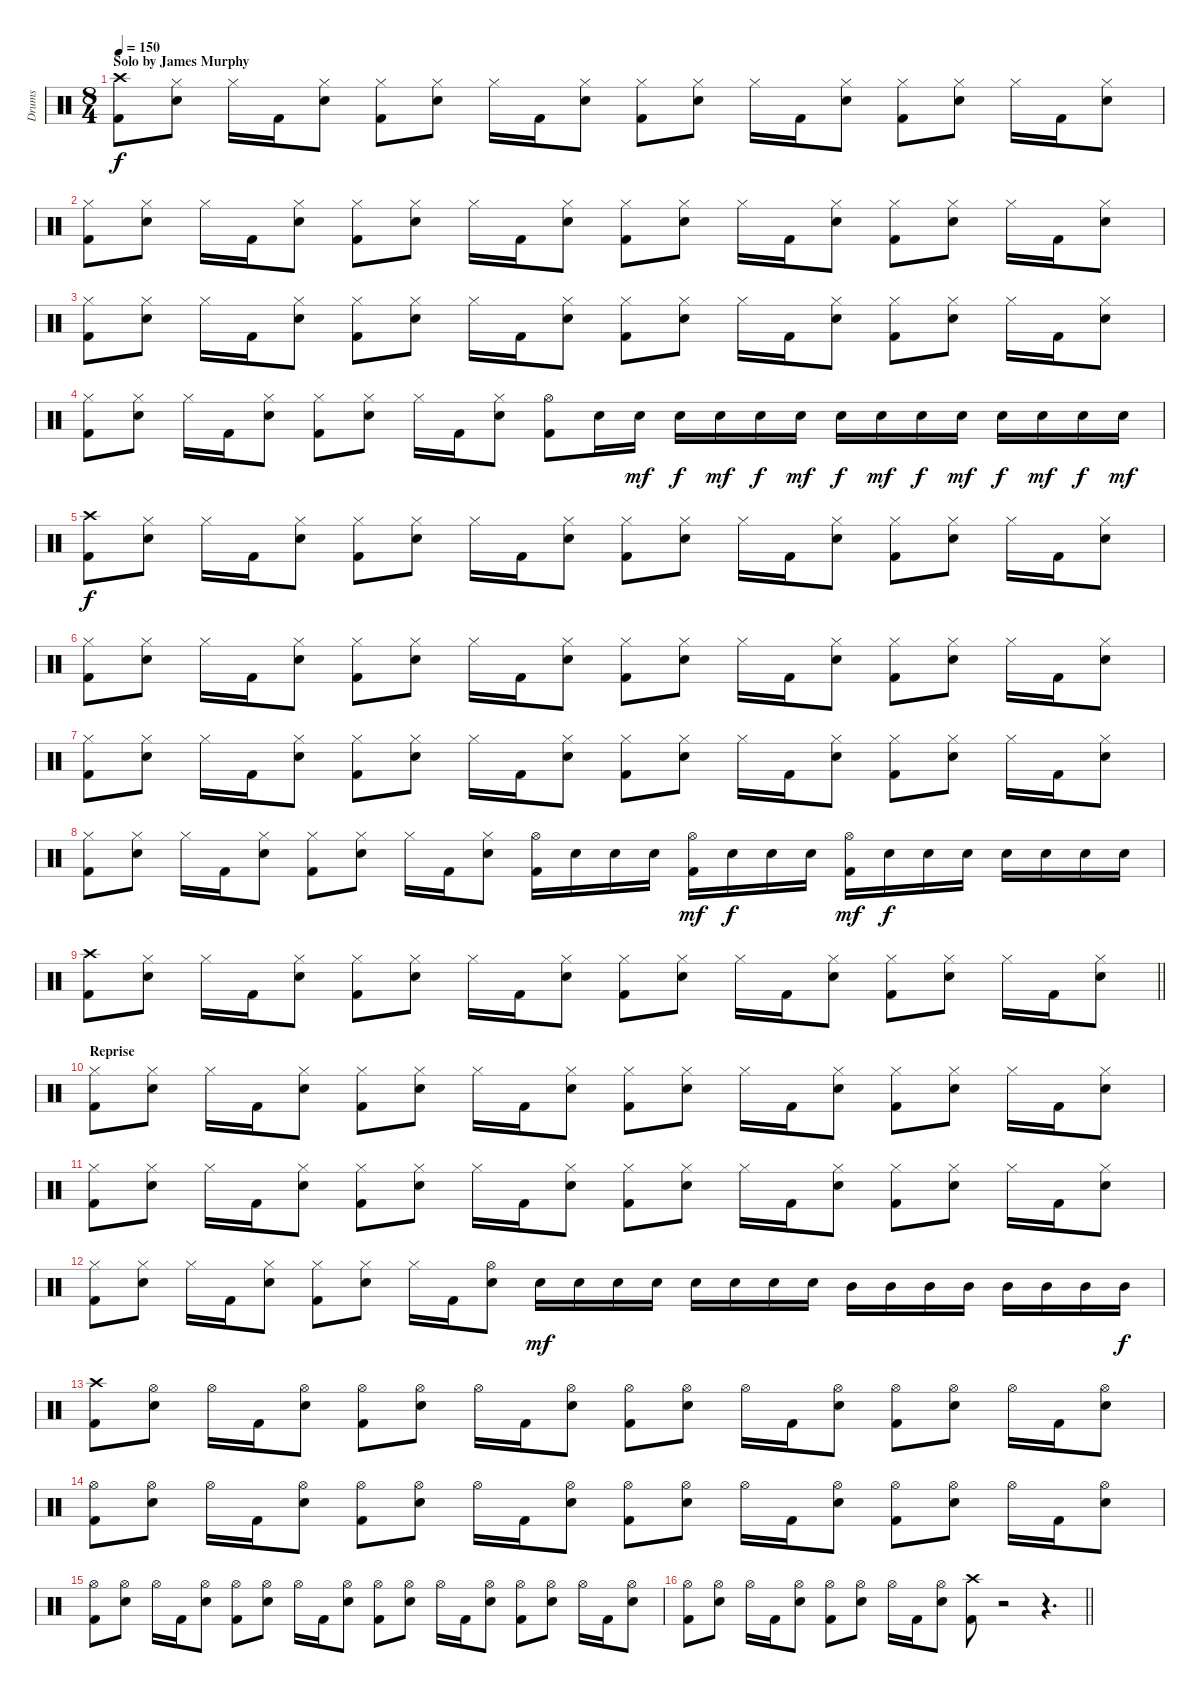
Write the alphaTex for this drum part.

\track ("Drums" "Drums") {instrument percussion}
\staff {score}
\articulation defaults
\ts (8 4)
\section ("" "Solo by James Murphy")
\tempo 150
\clef neutral
\ks c
("Crash high (hit)" "Kick (hit) 2").8{dy f} ("Hi-Hat (closed)" "Snare (hit) 2").8 "Hi-Hat (closed)".16 "Kick (hit) 2".16 ("Hi-Hat (closed)" "Snare (hit) 2").8 ("Hi-Hat (closed)" "Kick (hit) 2").8 ("Hi-Hat (closed)" "Snare (hit) 2").8 "Hi-Hat (closed)".16 "Kick (hit) 2".16 ("Hi-Hat (closed)" "Snare (hit) 2").8 ("Hi-Hat (closed)" "Kick (hit) 2").8 ("Hi-Hat (closed)" "Snare (hit) 2").8 "Hi-Hat (closed)".16 "Kick (hit) 2".16 ("Hi-Hat (closed)" "Snare (hit) 2").8 ("Hi-Hat (closed)" "Kick (hit) 2").8 ("Hi-Hat (closed)" "Snare (hit) 2").8 "Hi-Hat (closed)".16 "Kick (hit) 2".16 ("Hi-Hat (closed)" "Snare (hit) 2").8 |
("Hi-Hat (closed)" "Kick (hit) 2").8 ("Hi-Hat (closed)" "Snare (hit) 2").8 "Hi-Hat (closed)".16 "Kick (hit) 2".16 ("Hi-Hat (closed)" "Snare (hit) 2").8 ("Hi-Hat (closed)" "Kick (hit) 2").8 ("Hi-Hat (closed)" "Snare (hit) 2").8 "Hi-Hat (closed)".16 "Kick (hit) 2".16 ("Hi-Hat (closed)" "Snare (hit) 2").8 ("Hi-Hat (closed)" "Kick (hit) 2").8 ("Hi-Hat (closed)" "Snare (hit) 2").8 "Hi-Hat (closed)".16 "Kick (hit) 2".16 ("Hi-Hat (closed)" "Snare (hit) 2").8 ("Hi-Hat (closed)" "Kick (hit) 2").8 ("Hi-Hat (closed)" "Snare (hit) 2").8 "Hi-Hat (closed)".16 "Kick (hit) 2".16 ("Hi-Hat (closed)" "Snare (hit) 2").8 |
("Hi-Hat (closed)" "Kick (hit) 2").8 ("Hi-Hat (closed)" "Snare (hit) 2").8 "Hi-Hat (closed)".16 "Kick (hit) 2".16 ("Hi-Hat (closed)" "Snare (hit) 2").8 ("Hi-Hat (closed)" "Kick (hit) 2").8 ("Hi-Hat (closed)" "Snare (hit) 2").8 "Hi-Hat (closed)".16 "Kick (hit) 2".16 ("Hi-Hat (closed)" "Snare (hit) 2").8 ("Hi-Hat (closed)" "Kick (hit) 2").8 ("Hi-Hat (closed)" "Snare (hit) 2").8 "Hi-Hat (closed)".16 "Kick (hit) 2".16 ("Hi-Hat (closed)" "Snare (hit) 2").8 ("Hi-Hat (closed)" "Kick (hit) 2").8 ("Hi-Hat (closed)" "Snare (hit) 2").8 "Hi-Hat (closed)".16 "Kick (hit) 2".16 ("Hi-Hat (closed)" "Snare (hit) 2").8 |
("Hi-Hat (closed)" "Kick (hit) 2").8 ("Hi-Hat (closed)" "Snare (hit) 2").8 "Hi-Hat (closed)".16 "Kick (hit) 2".16 ("Hi-Hat (closed)" "Snare (hit) 2").8 ("Hi-Hat (closed)" "Kick (hit) 2").8 ("Hi-Hat (closed)" "Snare (hit) 2").8 "Hi-Hat (closed)".16 "Kick (hit) 2".16 ("Hi-Hat (closed)" "Snare (hit) 2").8 ("Hi-Hat (open)" "Kick (hit) 2").8 "Snare (hit) 2".16 "Snare (hit) 2".16{dy mf} "Snare (hit) 2".16{dy f} "Snare (hit) 2".16{dy mf} "Snare (hit) 2".16{dy f} "Snare (hit) 2".16{dy mf} "Snare (hit) 2".16{dy f} "Snare (hit) 2".16{dy mf} "Snare (hit) 2".16{dy f} "Snare (hit) 2".16{dy mf} "Snare (hit) 2".16{dy f} "Snare (hit) 2".16{dy mf} "Snare (hit) 2".16{dy f} "Snare (hit) 2".16{dy mf} |
("Crash high (hit)" "Kick (hit) 2").8{dy f} ("Hi-Hat (closed)" "Snare (hit) 2").8 "Hi-Hat (closed)".16 "Kick (hit) 2".16 ("Hi-Hat (closed)" "Snare (hit) 2").8 ("Hi-Hat (closed)" "Kick (hit) 2").8 ("Hi-Hat (closed)" "Snare (hit) 2").8 "Hi-Hat (closed)".16 "Kick (hit) 2".16 ("Hi-Hat (closed)" "Snare (hit) 2").8 ("Hi-Hat (closed)" "Kick (hit) 2").8 ("Hi-Hat (closed)" "Snare (hit) 2").8 "Hi-Hat (closed)".16 "Kick (hit) 2".16 ("Hi-Hat (closed)" "Snare (hit) 2").8 ("Hi-Hat (closed)" "Kick (hit) 2").8 ("Hi-Hat (closed)" "Snare (hit) 2").8 "Hi-Hat (closed)".16 "Kick (hit) 2".16 ("Hi-Hat (closed)" "Snare (hit) 2").8 |
("Hi-Hat (closed)" "Kick (hit) 2").8 ("Hi-Hat (closed)" "Snare (hit) 2").8 "Hi-Hat (closed)".16 "Kick (hit) 2".16 ("Hi-Hat (closed)" "Snare (hit) 2").8 ("Hi-Hat (closed)" "Kick (hit) 2").8 ("Hi-Hat (closed)" "Snare (hit) 2").8 "Hi-Hat (closed)".16 "Kick (hit) 2".16 ("Hi-Hat (closed)" "Snare (hit) 2").8 ("Hi-Hat (closed)" "Kick (hit) 2").8 ("Hi-Hat (closed)" "Snare (hit) 2").8 "Hi-Hat (closed)".16 "Kick (hit) 2".16 ("Hi-Hat (closed)" "Snare (hit) 2").8 ("Hi-Hat (closed)" "Kick (hit) 2").8 ("Hi-Hat (closed)" "Snare (hit) 2").8 "Hi-Hat (closed)".16 "Kick (hit) 2".16 ("Hi-Hat (closed)" "Snare (hit) 2").8 |
("Hi-Hat (closed)" "Kick (hit) 2").8 ("Hi-Hat (closed)" "Snare (hit) 2").8 "Hi-Hat (closed)".16 "Kick (hit) 2".16 ("Hi-Hat (closed)" "Snare (hit) 2").8 ("Hi-Hat (closed)" "Kick (hit) 2").8 ("Hi-Hat (closed)" "Snare (hit) 2").8 "Hi-Hat (closed)".16 "Kick (hit) 2".16 ("Hi-Hat (closed)" "Snare (hit) 2").8 ("Hi-Hat (closed)" "Kick (hit) 2").8 ("Hi-Hat (closed)" "Snare (hit) 2").8 "Hi-Hat (closed)".16 "Kick (hit) 2".16 ("Hi-Hat (closed)" "Snare (hit) 2").8 ("Hi-Hat (closed)" "Kick (hit) 2").8 ("Hi-Hat (closed)" "Snare (hit) 2").8 "Hi-Hat (closed)".16 "Kick (hit) 2".16 ("Hi-Hat (closed)" "Snare (hit) 2").8 |
("Hi-Hat (closed)" "Kick (hit) 2").8 ("Hi-Hat (closed)" "Snare (hit) 2").8 "Hi-Hat (closed)".16 "Kick (hit) 2".16 ("Hi-Hat (closed)" "Snare (hit) 2").8 ("Hi-Hat (closed)" "Kick (hit) 2").8 ("Hi-Hat (closed)" "Snare (hit) 2").8 "Hi-Hat (closed)".16 "Kick (hit) 2".16 ("Hi-Hat (closed)" "Snare (hit) 2").8 ("Hi-Hat (open)" "Kick (hit) 2").16 "Snare (hit) 2".16 "Snare (hit) 2".16 "Snare (hit) 2".16 ("Hi-Hat (open)" "Kick (hit) 2").16{dy mf} "Snare (hit) 2".16{dy f} "Snare (hit) 2".16 "Snare (hit) 2".16 ("Hi-Hat (open)" "Kick (hit) 2").16{dy mf} "Snare (hit) 2".16{dy f} "Snare (hit) 2".16 "Snare (hit) 2".16 "Snare (hit) 2".16 "Snare (hit) 2".16 "Snare (hit) 2".16 "Snare (hit) 2".16 |
\barLineRight lightlight
("Crash high (hit)" "Kick (hit) 2").8 ("Hi-Hat (closed)" "Snare (hit) 2").8 "Hi-Hat (closed)".16 "Kick (hit) 2".16 ("Hi-Hat (closed)" "Snare (hit) 2").8 ("Hi-Hat (closed)" "Kick (hit) 2").8 ("Hi-Hat (closed)" "Snare (hit) 2").8 "Hi-Hat (closed)".16 "Kick (hit) 2".16 ("Hi-Hat (closed)" "Snare (hit) 2").8 ("Hi-Hat (closed)" "Kick (hit) 2").8 ("Hi-Hat (closed)" "Snare (hit) 2").8 "Hi-Hat (closed)".16 "Kick (hit) 2".16 ("Hi-Hat (closed)" "Snare (hit) 2").8 ("Hi-Hat (closed)" "Kick (hit) 2").8 ("Hi-Hat (closed)" "Snare (hit) 2").8 "Hi-Hat (closed)".16 "Kick (hit) 2".16 ("Hi-Hat (closed)" "Snare (hit) 2").8 |
\section ("" "Reprise")
("Hi-Hat (closed)" "Kick (hit) 2").8 ("Hi-Hat (closed)" "Snare (hit) 2").8 "Hi-Hat (closed)".16 "Kick (hit) 2".16 ("Hi-Hat (closed)" "Snare (hit) 2").8 ("Hi-Hat (closed)" "Kick (hit) 2").8 ("Hi-Hat (closed)" "Snare (hit) 2").8 "Hi-Hat (closed)".16 "Kick (hit) 2".16 ("Hi-Hat (closed)" "Snare (hit) 2").8 ("Hi-Hat (closed)" "Kick (hit) 2").8 ("Hi-Hat (closed)" "Snare (hit) 2").8 "Hi-Hat (closed)".16 "Kick (hit) 2".16 ("Hi-Hat (closed)" "Snare (hit) 2").8 ("Hi-Hat (closed)" "Kick (hit) 2").8 ("Hi-Hat (closed)" "Snare (hit) 2").8 "Hi-Hat (closed)".16 "Kick (hit) 2".16 ("Hi-Hat (closed)" "Snare (hit) 2").8 |
("Hi-Hat (closed)" "Kick (hit) 2").8 ("Hi-Hat (closed)" "Snare (hit) 2").8 "Hi-Hat (closed)".16 "Kick (hit) 2".16 ("Hi-Hat (closed)" "Snare (hit) 2").8 ("Hi-Hat (closed)" "Kick (hit) 2").8 ("Hi-Hat (closed)" "Snare (hit) 2").8 "Hi-Hat (closed)".16 "Kick (hit) 2".16 ("Hi-Hat (closed)" "Snare (hit) 2").8 ("Hi-Hat (closed)" "Kick (hit) 2").8 ("Hi-Hat (closed)" "Snare (hit) 2").8 "Hi-Hat (closed)".16 "Kick (hit) 2".16 ("Hi-Hat (closed)" "Snare (hit) 2").8 ("Hi-Hat (closed)" "Kick (hit) 2").8 ("Hi-Hat (closed)" "Snare (hit) 2").8 "Hi-Hat (closed)".16 "Kick (hit) 2".16 ("Hi-Hat (closed)" "Snare (hit) 2").8 |
("Hi-Hat (closed)" "Kick (hit) 2").8 ("Hi-Hat (closed)" "Snare (hit) 2").8 "Hi-Hat (closed)".16 "Kick (hit) 2".16 ("Hi-Hat (closed)" "Snare (hit) 2").8 ("Hi-Hat (closed)" "Kick (hit) 2").8 ("Hi-Hat (closed)" "Snare (hit) 2").8 "Hi-Hat (closed)".16 "Kick (hit) 2".16 ("Hi-Hat (open)" "Snare (hit) 2").8 "Snare (hit) 2".16{dy mf} "Snare (hit) 2".16 "Snare (hit) 2".16 "Snare (hit) 2".16 "Snare (hit) 2".16 "Snare (hit) 2".16 "Snare (hit) 2".16 "Snare (hit) 2".16 "Mid Tom (hit)".16 "Mid Tom (hit)".16 "Mid Tom (hit)".16 "Mid Tom (hit)".16 "Mid Tom (hit)".16 "Mid Tom (hit)".16 "Mid Tom (hit)".16 "Mid Tom (hit)".16{dy f} |
("Crash high (hit)" "Kick (hit) 2").8 ("Hi-Hat (open)" "Snare (hit) 2").8 "Hi-Hat (open)".16 "Kick (hit) 2".16 ("Hi-Hat (open)" "Snare (hit) 2").8 ("Hi-Hat (open)" "Kick (hit) 2").8 ("Hi-Hat (open)" "Snare (hit) 2").8 "Hi-Hat (open)".16 "Kick (hit) 2".16 ("Hi-Hat (open)" "Snare (hit) 2").8 ("Hi-Hat (open)" "Kick (hit) 2").8 ("Hi-Hat (open)" "Snare (hit) 2").8 "Hi-Hat (open)".16 "Kick (hit) 2".16 ("Hi-Hat (open)" "Snare (hit) 2").8 ("Hi-Hat (open)" "Kick (hit) 2").8 ("Hi-Hat (open)" "Snare (hit) 2").8 "Hi-Hat (open)".16 "Kick (hit) 2".16 ("Hi-Hat (open)" "Snare (hit) 2").8 |
("Hi-Hat (open)" "Kick (hit) 2").8 ("Hi-Hat (open)" "Snare (hit) 2").8 "Hi-Hat (open)".16 "Kick (hit) 2".16 ("Hi-Hat (open)" "Snare (hit) 2").8 ("Hi-Hat (open)" "Kick (hit) 2").8 ("Hi-Hat (open)" "Snare (hit) 2").8 "Hi-Hat (open)".16 "Kick (hit) 2".16 ("Hi-Hat (open)" "Snare (hit) 2").8 ("Hi-Hat (open)" "Kick (hit) 2").8 ("Hi-Hat (open)" "Snare (hit) 2").8 "Hi-Hat (open)".16 "Kick (hit) 2".16 ("Hi-Hat (open)" "Snare (hit) 2").8 ("Hi-Hat (open)" "Kick (hit) 2").8 ("Hi-Hat (open)" "Snare (hit) 2").8 "Hi-Hat (open)".16 "Kick (hit) 2".16 ("Hi-Hat (open)" "Snare (hit) 2").8 |
("Hi-Hat (open)" "Kick (hit) 2").8 ("Hi-Hat (open)" "Snare (hit) 2").8 "Hi-Hat (open)".16 "Kick (hit) 2".16 ("Hi-Hat (open)" "Snare (hit) 2").8 ("Hi-Hat (open)" "Kick (hit) 2").8 ("Hi-Hat (open)" "Snare (hit) 2").8 "Hi-Hat (open)".16 "Kick (hit) 2".16 ("Hi-Hat (open)" "Snare (hit) 2").8 ("Hi-Hat (open)" "Kick (hit) 2").8 ("Hi-Hat (open)" "Snare (hit) 2").8 "Hi-Hat (open)".16 "Kick (hit) 2".16 ("Hi-Hat (open)" "Snare (hit) 2").8 ("Hi-Hat (open)" "Kick (hit) 2").8 ("Hi-Hat (open)" "Snare (hit) 2").8 "Hi-Hat (open)".16 "Kick (hit) 2".16 ("Hi-Hat (open)" "Snare (hit) 2").8 |
\barLineRight lightlight
("Hi-Hat (open)" "Kick (hit) 2").8 ("Hi-Hat (open)" "Snare (hit) 2").8 "Hi-Hat (open)".16 "Kick (hit) 2".16 ("Hi-Hat (open)" "Snare (hit) 2").8 ("Hi-Hat (open)" "Kick (hit) 2").8 ("Hi-Hat (open)" "Snare (hit) 2").8 "Hi-Hat (open)".16 "Kick (hit) 2".16 ("Hi-Hat (open)" "Snare (hit) 2").8 ("Crash high (hit)" "Kick (hit) 2").8 r.2 r.4{d}
